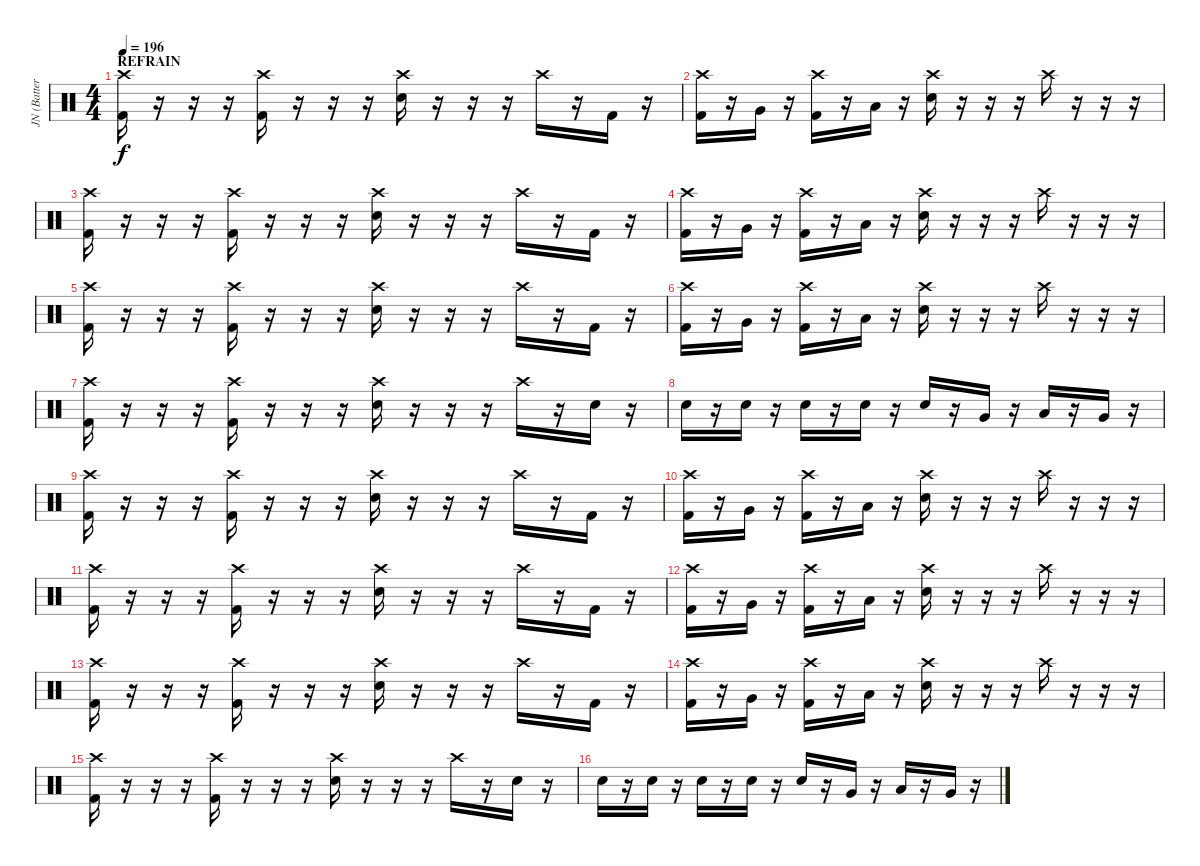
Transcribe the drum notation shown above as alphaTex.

\track ("JN (Batterie)" "JN (Batter") {instrument percussion}
\staff {score}
\articulation defaults
\ts (4 4)
\section ("" "REFRAIN")
\tempo 196
\clef neutral
\ks c
("Crash high (hit)" "Kick (hit) 2").16{dy f} r.16 r.16 r.16 ("Crash high (hit)" "Kick (hit) 2").16 r.16 r.16 r.16 ("Crash high (hit)" "Electric Snare (hit)").16 r.16 r.16 r.16 "Crash high (hit)".16 r.16 "Kick (hit) 2".16 r.16 |
("Crash high (hit)" "Kick (hit) 2").16 r.16 "Very Low Tom (hit)".16 r.16 ("Crash high (hit)" "Kick (hit) 2").16 r.16 "Low Tom (hit)".16 r.16 ("Crash high (hit)" "Electric Snare (hit)").16 r.16 r.16 r.16 "Crash high (hit)".16 r.16 r.16 r.16 |
("Crash high (hit)" "Kick (hit) 2").16 r.16 r.16 r.16 ("Crash high (hit)" "Kick (hit) 2").16 r.16 r.16 r.16 ("Crash high (hit)" "Electric Snare (hit)").16 r.16 r.16 r.16 "Crash high (hit)".16 r.16 "Kick (hit) 2".16 r.16 |
("Crash high (hit)" "Kick (hit) 2").16 r.16 "Very Low Tom (hit)".16 r.16 ("Crash high (hit)" "Kick (hit) 2").16 r.16 "Low Tom (hit)".16 r.16 ("Crash high (hit)" "Electric Snare (hit)").16 r.16 r.16 r.16 "Crash high (hit)".16 r.16 r.16 r.16 |
("Crash high (hit)" "Kick (hit) 2").16 r.16 r.16 r.16 ("Crash high (hit)" "Kick (hit) 2").16 r.16 r.16 r.16 ("Crash high (hit)" "Electric Snare (hit)").16 r.16 r.16 r.16 "Crash high (hit)".16 r.16 "Kick (hit) 2".16 r.16 |
("Crash high (hit)" "Kick (hit) 2").16 r.16 "Very Low Tom (hit)".16 r.16 ("Crash high (hit)" "Kick (hit) 2").16 r.16 "Low Tom (hit)".16 r.16 ("Crash high (hit)" "Electric Snare (hit)").16 r.16 r.16 r.16 "Crash high (hit)".16 r.16 r.16 r.16 |
("Crash high (hit)" "Kick (hit) 2").16 r.16 r.16 r.16 ("Crash high (hit)" "Kick (hit) 2").16 r.16 r.16 r.16 ("Crash high (hit)" "Electric Snare (hit)").16 r.16 r.16 r.16 "Crash high (hit)".16 r.16 "Electric Snare (hit)".16 r.16 |
"Electric Snare (hit)".16 r.16 "Electric Snare (hit)".16 r.16 "Electric Snare (hit)".16 r.16 "Electric Snare (hit)".16 r.16 "Electric Snare (hit)".16 r.16 "Very Low Tom (hit)".16 r.16 "Low Tom (hit)".16 r.16 "Very Low Tom (hit)".16 r.16 |
("Crash high (hit)" "Kick (hit) 2").16 r.16 r.16 r.16 ("Crash high (hit)" "Kick (hit) 2").16 r.16 r.16 r.16 ("Crash high (hit)" "Electric Snare (hit)").16 r.16 r.16 r.16 "Crash high (hit)".16 r.16 "Kick (hit) 2".16 r.16 |
("Crash high (hit)" "Kick (hit) 2").16 r.16 "Very Low Tom (hit)".16 r.16 ("Crash high (hit)" "Kick (hit) 2").16 r.16 "Low Tom (hit)".16 r.16 ("Crash high (hit)" "Electric Snare (hit)").16 r.16 r.16 r.16 "Crash high (hit)".16 r.16 r.16 r.16 |
("Crash high (hit)" "Kick (hit) 2").16 r.16 r.16 r.16 ("Crash high (hit)" "Kick (hit) 2").16 r.16 r.16 r.16 ("Crash high (hit)" "Electric Snare (hit)").16 r.16 r.16 r.16 "Crash high (hit)".16 r.16 "Kick (hit) 2".16 r.16 |
("Crash high (hit)" "Kick (hit) 2").16 r.16 "Very Low Tom (hit)".16 r.16 ("Crash high (hit)" "Kick (hit) 2").16 r.16 "Low Tom (hit)".16 r.16 ("Crash high (hit)" "Electric Snare (hit)").16 r.16 r.16 r.16 "Crash high (hit)".16 r.16 r.16 r.16 |
("Crash high (hit)" "Kick (hit) 2").16 r.16 r.16 r.16 ("Crash high (hit)" "Kick (hit) 2").16 r.16 r.16 r.16 ("Crash high (hit)" "Electric Snare (hit)").16 r.16 r.16 r.16 "Crash high (hit)".16 r.16 "Kick (hit) 2".16 r.16 |
("Crash high (hit)" "Kick (hit) 2").16 r.16 "Very Low Tom (hit)".16 r.16 ("Crash high (hit)" "Kick (hit) 2").16 r.16 "Low Tom (hit)".16 r.16 ("Crash high (hit)" "Electric Snare (hit)").16 r.16 r.16 r.16 "Crash high (hit)".16 r.16 r.16 r.16 |
("Crash high (hit)" "Kick (hit) 2").16 r.16 r.16 r.16 ("Crash high (hit)" "Kick (hit) 2").16 r.16 r.16 r.16 ("Crash high (hit)" "Electric Snare (hit)").16 r.16 r.16 r.16 "Crash high (hit)".16 r.16 "Electric Snare (hit)".16 r.16 |
"Electric Snare (hit)".16 r.16 "Electric Snare (hit)".16 r.16 "Electric Snare (hit)".16 r.16 "Electric Snare (hit)".16 r.16 "Electric Snare (hit)".16 r.16 "Very Low Tom (hit)".16 r.16 "Low Tom (hit)".16 r.16 "Very Low Tom (hit)".16 r.16
